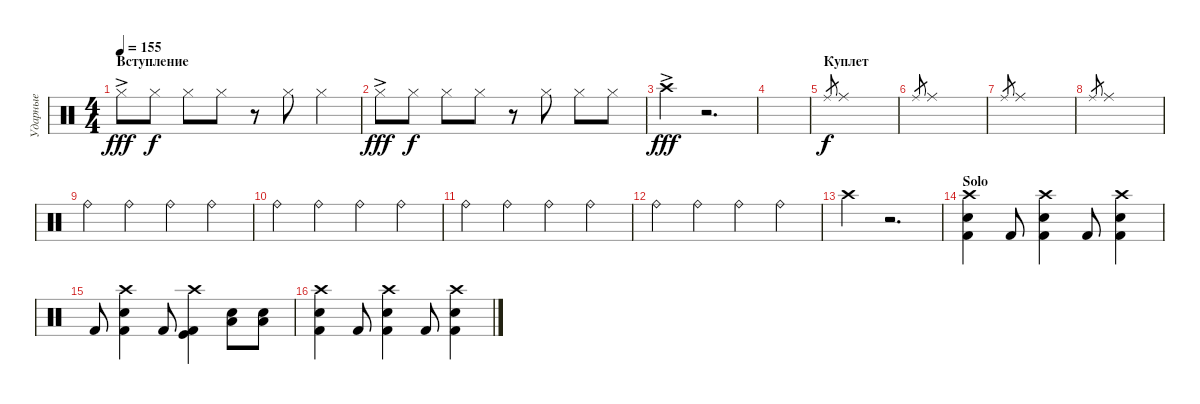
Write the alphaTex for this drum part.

\track ("Ударные" "Ударные") {instrument percussion}
\staff {score}
\articulation defaults
\ts (4 4)
\section ("" "Вступление")
\tempo 155
\clef neutral
\ks c "Hi-Hat (closed)"{ac}.8{dy fff} "Hi-Hat (closed)".8{dy f} "Hi-Hat (closed)".8 "Hi-Hat (closed)".8
r.8 "Hi-Hat (closed)".8 "Hi-Hat (closed)".4 |
"Hi-Hat (closed)"{ac}.8{dy fff} "Hi-Hat (closed)".8{dy f} "Hi-Hat (closed)".8 "Hi-Hat (closed)".8 r.8 "Hi-Hat (closed)".8 "Hi-Hat (closed)".8 "Hi-Hat (closed)".8 |
"Crash high (hit)"{ac}.4{dy fff} r.2{d} |
|
\section ("" "Куплет")
"Ride (middle)".8{gr dy f} "Ride (middle)".1 |
"Ride (middle)".8{gr} "Ride (middle)".1 |
"Ride (middle)".8{gr} "Ride (middle)".1 |
"Ride (middle)".8{gr} "Ride (middle)".1 |
"Ride (bell)".4 "Ride (bell)".4 "Ride (bell)".4 "Ride (bell)".4 |
"Ride (bell)".4 "Ride (bell)".4 "Ride (bell)".4 "Ride (bell)".4 |
"Ride (bell)".4 "Ride (bell)".4 "Ride (bell)".4 "Ride (bell)".4 |
"Ride (bell)".4 "Ride (bell)".4 "Ride (bell)".4 "Ride (bell)".4 |
"Crash high (hit)".4 r.2{d} |
\section ("" "Solo")
("Crash high (hit)" "Kick (hit) 2" "Snare (hit) 2").4 "Kick (hit) 2".8 ("Crash high (hit)" "Kick (hit) 2" "Snare (hit) 2").4 "Kick (hit) 2".8 ("Crash high (hit)" "Kick (hit) 2" "Snare (hit) 2").4 |
"Kick (hit) 2".8 ("Crash high (hit)" "Kick (hit) 2" "Snare (hit) 2").4 "Kick (hit) 2".8 ("Crash high (hit)" "Kick (hit) 2" "Kick (hit)").4 ("Low Floor Tom (hit)" "Snare (hit) 2").8 ("Low Floor Tom (hit)" "Snare (hit) 2").8 |
("Crash high (hit)" "Kick (hit) 2" "Snare (hit) 2").4 "Kick (hit) 2".8 ("Crash high (hit)" "Kick (hit) 2" "Snare (hit) 2").4 "Kick (hit) 2".8 ("Crash high (hit)" "Kick (hit) 2" "Snare (hit) 2").4
